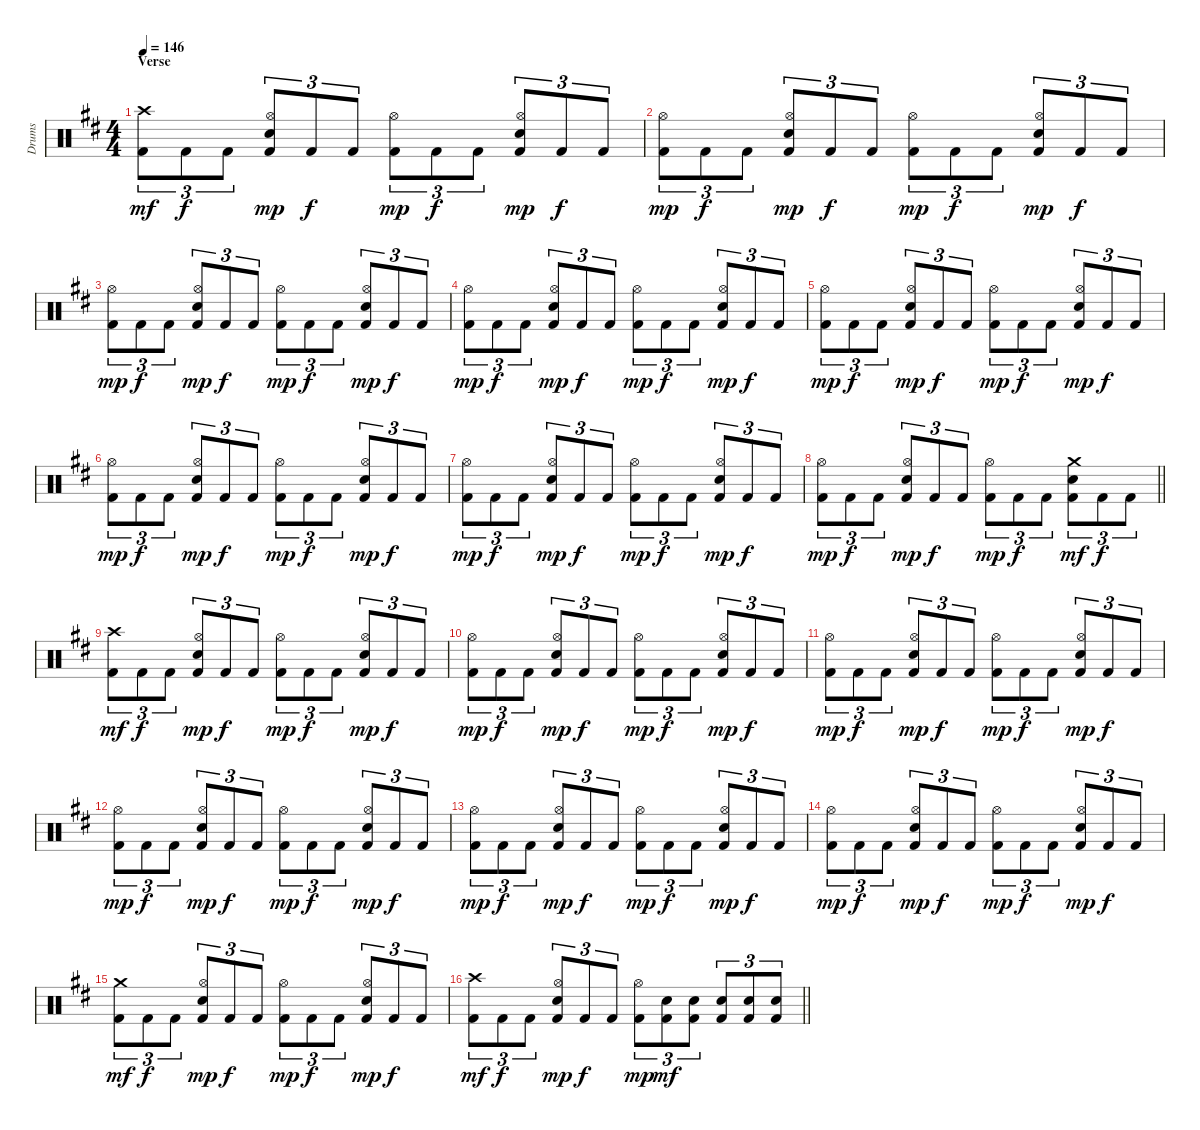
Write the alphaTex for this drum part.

\track ("Drums" "Drums") {instrument percussion}
\staff {score}
\articulation defaults
\ts (4 4)
\section ("" "Verse")
\tempo 146
\clef neutral
\ks bminor
("Crash high (hit)" "Kick (hit) 2").8{tu (3 2) dy mf} "Kick (hit) 2".8{tu (3 2) dy f} "Kick (hit) 2".8{tu (3 2)} ("Hi-Hat (open)" "Electric Snare (hit)" "Kick (hit) 2").8{tu (3 2) dy mp} "Kick (hit) 2".8{tu (3 2) dy f} "Kick (hit) 2".8{tu (3 2)} ("Hi-Hat (open)" "Kick (hit) 2").8{tu (3 2) dy mp} "Kick (hit) 2".8{tu (3 2) dy f} "Kick (hit) 2".8{tu (3 2)} ("Hi-Hat (open)" "Electric Snare (hit)" "Kick (hit) 2").8{tu (3 2) dy mp} "Kick (hit) 2".8{tu (3 2) dy f} "Kick (hit) 2".8{tu (3 2)} |
("Hi-Hat (open)" "Kick (hit) 2").8{tu (3 2) dy mp} "Kick (hit) 2".8{tu (3 2) dy f} "Kick (hit) 2".8{tu (3 2)} ("Hi-Hat (open)" "Electric Snare (hit)" "Kick (hit) 2").8{tu (3 2) dy mp} "Kick (hit) 2".8{tu (3 2) dy f} "Kick (hit) 2".8{tu (3 2)} ("Hi-Hat (open)" "Kick (hit) 2").8{tu (3 2) dy mp} "Kick (hit) 2".8{tu (3 2) dy f} "Kick (hit) 2".8{tu (3 2)} ("Hi-Hat (open)" "Electric Snare (hit)" "Kick (hit) 2").8{tu (3 2) dy mp} "Kick (hit) 2".8{tu (3 2) dy f} "Kick (hit) 2".8{tu (3 2)} |
("Hi-Hat (open)" "Kick (hit) 2").8{tu (3 2) dy mp} "Kick (hit) 2".8{tu (3 2) dy f} "Kick (hit) 2".8{tu (3 2)} ("Hi-Hat (open)" "Electric Snare (hit)" "Kick (hit) 2").8{tu (3 2) dy mp} "Kick (hit) 2".8{tu (3 2) dy f} "Kick (hit) 2".8{tu (3 2)} ("Hi-Hat (open)" "Kick (hit) 2").8{tu (3 2) dy mp} "Kick (hit) 2".8{tu (3 2) dy f} "Kick (hit) 2".8{tu (3 2)} ("Hi-Hat (open)" "Electric Snare (hit)" "Kick (hit) 2").8{tu (3 2) dy mp} "Kick (hit) 2".8{tu (3 2) dy f} "Kick (hit) 2".8{tu (3 2)} |
("Hi-Hat (open)" "Kick (hit) 2").8{tu (3 2) dy mp} "Kick (hit) 2".8{tu (3 2) dy f} "Kick (hit) 2".8{tu (3 2)} ("Hi-Hat (open)" "Electric Snare (hit)" "Kick (hit) 2").8{tu (3 2) dy mp} "Kick (hit) 2".8{tu (3 2) dy f} "Kick (hit) 2".8{tu (3 2)} ("Hi-Hat (open)" "Kick (hit) 2").8{tu (3 2) dy mp} "Kick (hit) 2".8{tu (3 2) dy f} "Kick (hit) 2".8{tu (3 2)} ("Hi-Hat (open)" "Electric Snare (hit)" "Kick (hit) 2").8{tu (3 2) dy mp} "Kick (hit) 2".8{tu (3 2) dy f} "Kick (hit) 2".8{tu (3 2)} |
("Hi-Hat (open)" "Kick (hit) 2").8{tu (3 2) dy mp} "Kick (hit) 2".8{tu (3 2) dy f} "Kick (hit) 2".8{tu (3 2)} ("Hi-Hat (open)" "Electric Snare (hit)" "Kick (hit) 2").8{tu (3 2) dy mp} "Kick (hit) 2".8{tu (3 2) dy f} "Kick (hit) 2".8{tu (3 2)} ("Hi-Hat (open)" "Kick (hit) 2").8{tu (3 2) dy mp} "Kick (hit) 2".8{tu (3 2) dy f} "Kick (hit) 2".8{tu (3 2)} ("Hi-Hat (open)" "Electric Snare (hit)" "Kick (hit) 2").8{tu (3 2) dy mp} "Kick (hit) 2".8{tu (3 2) dy f} "Kick (hit) 2".8{tu (3 2)} |
("Hi-Hat (open)" "Kick (hit) 2").8{tu (3 2) dy mp} "Kick (hit) 2".8{tu (3 2) dy f} "Kick (hit) 2".8{tu (3 2)} ("Hi-Hat (open)" "Electric Snare (hit)" "Kick (hit) 2").8{tu (3 2) dy mp} "Kick (hit) 2".8{tu (3 2) dy f} "Kick (hit) 2".8{tu (3 2)} ("Hi-Hat (open)" "Kick (hit) 2").8{tu (3 2) dy mp} "Kick (hit) 2".8{tu (3 2) dy f} "Kick (hit) 2".8{tu (3 2)} ("Hi-Hat (open)" "Electric Snare (hit)" "Kick (hit) 2").8{tu (3 2) dy mp} "Kick (hit) 2".8{tu (3 2) dy f} "Kick (hit) 2".8{tu (3 2)} |
("Hi-Hat (open)" "Kick (hit) 2").8{tu (3 2) dy mp} "Kick (hit) 2".8{tu (3 2) dy f} "Kick (hit) 2".8{tu (3 2)} ("Hi-Hat (open)" "Electric Snare (hit)" "Kick (hit) 2").8{tu (3 2) dy mp} "Kick (hit) 2".8{tu (3 2) dy f} "Kick (hit) 2".8{tu (3 2)} ("Hi-Hat (open)" "Kick (hit) 2").8{tu (3 2) dy mp} "Kick (hit) 2".8{tu (3 2) dy f} "Kick (hit) 2".8{tu (3 2)} ("Hi-Hat (open)" "Electric Snare (hit)" "Kick (hit) 2").8{tu (3 2) dy mp} "Kick (hit) 2".8{tu (3 2) dy f} "Kick (hit) 2".8{tu (3 2)} |
\barLineRight lightlight
("Hi-Hat (open)" "Kick (hit) 2").8{tu (3 2) dy mp} "Kick (hit) 2".8{tu (3 2) dy f} "Kick (hit) 2".8{tu (3 2)} ("Hi-Hat (open)" "Electric Snare (hit)" "Kick (hit) 2").8{tu (3 2) dy mp} "Kick (hit) 2".8{tu (3 2) dy f} "Kick (hit) 2".8{tu (3 2)} ("Hi-Hat (open)" "Kick (hit) 2").8{tu (3 2) dy mp} "Kick (hit) 2".8{tu (3 2) dy f} "Kick (hit) 2".8{tu (3 2)} ("Crash medium (hit)" "Electric Snare (hit)" "Kick (hit) 2").8{tu (3 2) dy mf} "Kick (hit) 2".8{tu (3 2) dy f} "Kick (hit) 2".8{tu (3 2)} |
\section ("" "")
("Crash high (hit)" "Kick (hit) 2").8{tu (3 2) dy mf} "Kick (hit) 2".8{tu (3 2) dy f} "Kick (hit) 2".8{tu (3 2)} ("Hi-Hat (open)" "Electric Snare (hit)" "Kick (hit) 2").8{tu (3 2) dy mp} "Kick (hit) 2".8{tu (3 2) dy f} "Kick (hit) 2".8{tu (3 2)} ("Hi-Hat (open)" "Kick (hit) 2").8{tu (3 2) dy mp} "Kick (hit) 2".8{tu (3 2) dy f} "Kick (hit) 2".8{tu (3 2)} ("Hi-Hat (open)" "Electric Snare (hit)" "Kick (hit) 2").8{tu (3 2) dy mp} "Kick (hit) 2".8{tu (3 2) dy f} "Kick (hit) 2".8{tu (3 2)} |
("Hi-Hat (open)" "Kick (hit) 2").8{tu (3 2) dy mp} "Kick (hit) 2".8{tu (3 2) dy f} "Kick (hit) 2".8{tu (3 2)} ("Hi-Hat (open)" "Electric Snare (hit)" "Kick (hit) 2").8{tu (3 2) dy mp} "Kick (hit) 2".8{tu (3 2) dy f} "Kick (hit) 2".8{tu (3 2)} ("Hi-Hat (open)" "Kick (hit) 2").8{tu (3 2) dy mp} "Kick (hit) 2".8{tu (3 2) dy f} "Kick (hit) 2".8{tu (3 2)} ("Hi-Hat (open)" "Electric Snare (hit)" "Kick (hit) 2").8{tu (3 2) dy mp} "Kick (hit) 2".8{tu (3 2) dy f} "Kick (hit) 2".8{tu (3 2)} |
("Hi-Hat (open)" "Kick (hit) 2").8{tu (3 2) dy mp} "Kick (hit) 2".8{tu (3 2) dy f} "Kick (hit) 2".8{tu (3 2)} ("Hi-Hat (open)" "Electric Snare (hit)" "Kick (hit) 2").8{tu (3 2) dy mp} "Kick (hit) 2".8{tu (3 2) dy f} "Kick (hit) 2".8{tu (3 2)} ("Hi-Hat (open)" "Kick (hit) 2").8{tu (3 2) dy mp} "Kick (hit) 2".8{tu (3 2) dy f} "Kick (hit) 2".8{tu (3 2)} ("Hi-Hat (open)" "Electric Snare (hit)" "Kick (hit) 2").8{tu (3 2) dy mp} "Kick (hit) 2".8{tu (3 2) dy f} "Kick (hit) 2".8{tu (3 2)} |
("Hi-Hat (open)" "Kick (hit) 2").8{tu (3 2) dy mp} "Kick (hit) 2".8{tu (3 2) dy f} "Kick (hit) 2".8{tu (3 2)} ("Hi-Hat (open)" "Electric Snare (hit)" "Kick (hit) 2").8{tu (3 2) dy mp} "Kick (hit) 2".8{tu (3 2) dy f} "Kick (hit) 2".8{tu (3 2)} ("Hi-Hat (open)" "Kick (hit) 2").8{tu (3 2) dy mp} "Kick (hit) 2".8{tu (3 2) dy f} "Kick (hit) 2".8{tu (3 2)} ("Hi-Hat (open)" "Electric Snare (hit)" "Kick (hit) 2").8{tu (3 2) dy mp} "Kick (hit) 2".8{tu (3 2) dy f} "Kick (hit) 2".8{tu (3 2)} |
("Hi-Hat (open)" "Kick (hit) 2").8{tu (3 2) dy mp} "Kick (hit) 2".8{tu (3 2) dy f} "Kick (hit) 2".8{tu (3 2)} ("Hi-Hat (open)" "Electric Snare (hit)" "Kick (hit) 2").8{tu (3 2) dy mp} "Kick (hit) 2".8{tu (3 2) dy f} "Kick (hit) 2".8{tu (3 2)} ("Hi-Hat (open)" "Kick (hit) 2").8{tu (3 2) dy mp} "Kick (hit) 2".8{tu (3 2) dy f} "Kick (hit) 2".8{tu (3 2)} ("Hi-Hat (open)" "Electric Snare (hit)" "Kick (hit) 2").8{tu (3 2) dy mp} "Kick (hit) 2".8{tu (3 2) dy f} "Kick (hit) 2".8{tu (3 2)} |
("Hi-Hat (open)" "Kick (hit) 2").8{tu (3 2) dy mp} "Kick (hit) 2".8{tu (3 2) dy f} "Kick (hit) 2".8{tu (3 2)} ("Hi-Hat (open)" "Electric Snare (hit)" "Kick (hit) 2").8{tu (3 2) dy mp} "Kick (hit) 2".8{tu (3 2) dy f} "Kick (hit) 2".8{tu (3 2)} ("Hi-Hat (open)" "Kick (hit) 2").8{tu (3 2) dy mp} "Kick (hit) 2".8{tu (3 2) dy f} "Kick (hit) 2".8{tu (3 2)} ("Hi-Hat (open)" "Electric Snare (hit)" "Kick (hit) 2").8{tu (3 2) dy mp} "Kick (hit) 2".8{tu (3 2) dy f} "Kick (hit) 2".8{tu (3 2)} |
("Crash medium (hit)" "Kick (hit) 2").8{tu (3 2) dy mf} "Kick (hit) 2".8{tu (3 2) dy f} "Kick (hit) 2".8{tu (3 2)} ("Hi-Hat (open)" "Electric Snare (hit)" "Kick (hit) 2").8{tu (3 2) dy mp} "Kick (hit) 2".8{tu (3 2) dy f} "Kick (hit) 2".8{tu (3 2)} ("Hi-Hat (open)" "Kick (hit) 2").8{tu (3 2) dy mp} "Kick (hit) 2".8{tu (3 2) dy f} "Kick (hit) 2".8{tu (3 2)} ("Hi-Hat (open)" "Electric Snare (hit)" "Kick (hit) 2").8{tu (3 2) dy mp} "Kick (hit) 2".8{tu (3 2) dy f} "Kick (hit) 2".8{tu (3 2)} |
\barLineRight lightlight
("Crash high (hit)" "Kick (hit) 2").8{tu (3 2) dy mf} "Kick (hit) 2".8{tu (3 2) dy f} "Kick (hit) 2".8{tu (3 2)} ("Hi-Hat (open)" "Electric Snare (hit)" "Kick (hit) 2").8{tu (3 2) dy mp} "Kick (hit) 2".8{tu (3 2) dy f} "Kick (hit) 2".8{tu (3 2)} ("Hi-Hat (open)" "Kick (hit) 2").8{tu (3 2) dy mp} ("Electric Snare (hit)" "Kick (hit) 2").8{tu (3 2) dy mf} ("Electric Snare (hit)" "Kick (hit) 2").8{tu (3 2)} ("Electric Snare (hit)" "Kick (hit) 2").8{tu (3 2)} ("Electric Snare (hit)" "Kick (hit) 2").8{tu (3 2)} ("Electric Snare (hit)" "Kick (hit) 2").8{tu (3 2)}
